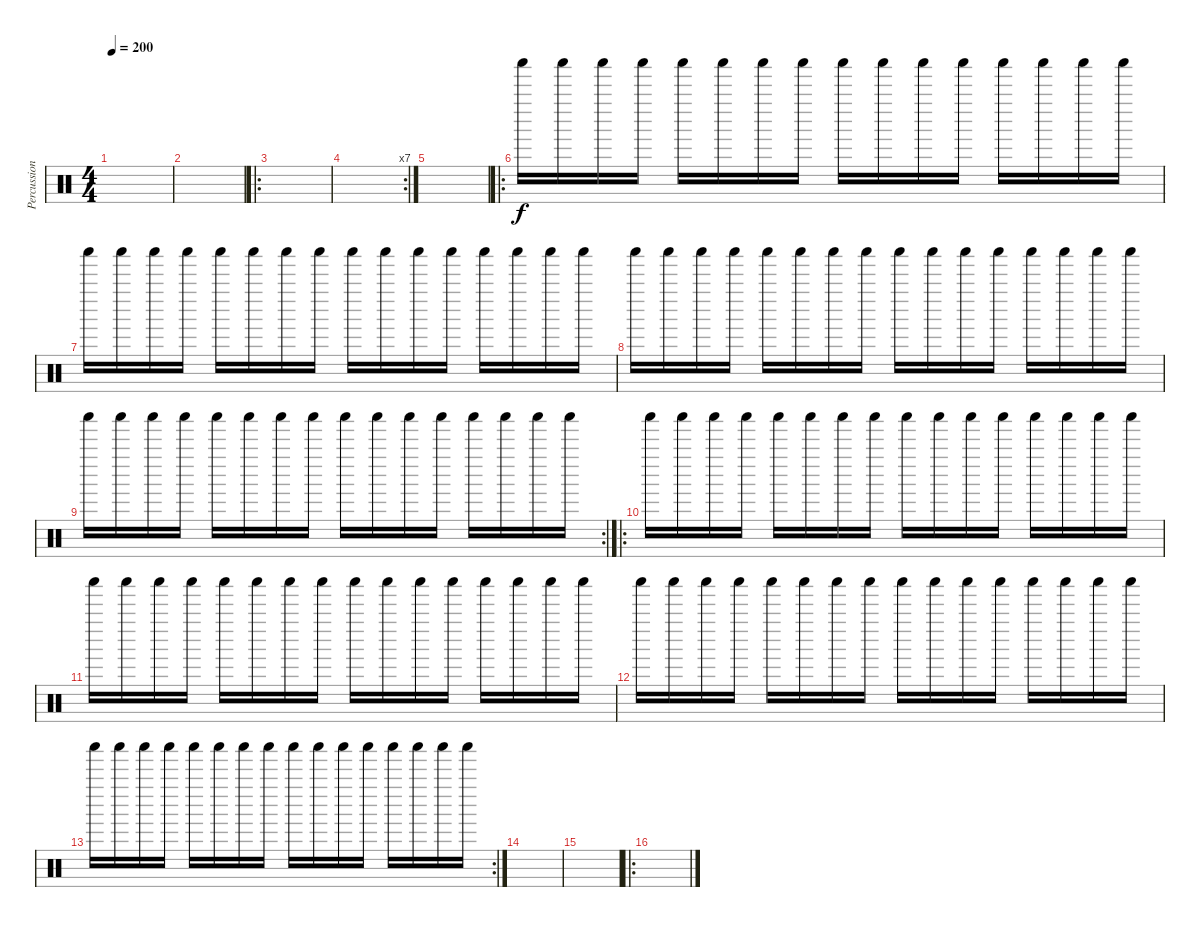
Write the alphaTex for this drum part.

\track ("Percussion" "Percussion") {instrument percussion}
\staff {score}
\articulation defaults
\ts (4 4)
\tempo 200
\clef neutral
\ks c
|
|
\ro
|
\rc 7
|
|
\ro "Shaker (hit)".16 "Shaker (hit)".16 "Shaker (hit)".16 "Shaker (hit)".16 "Shaker (hit)".16 "Shaker (hit)".16 "Shaker (hit)".16 "Shaker (hit)".16 "Shaker (hit)".16 "Shaker (hit)".16 "Shaker (hit)".16 "Shaker (hit)".16 "Shaker (hit)".16 "Shaker (hit)".16 "Shaker (hit)".16 "Shaker (hit)".16
|
"Shaker (hit)".16 "Shaker (hit)".16 "Shaker (hit)".16 "Shaker (hit)".16 "Shaker (hit)".16 "Shaker (hit)".16 "Shaker (hit)".16 "Shaker (hit)".16 "Shaker (hit)".16 "Shaker (hit)".16 "Shaker (hit)".16 "Shaker (hit)".16 "Shaker (hit)".16 "Shaker (hit)".16 "Shaker (hit)".16 "Shaker (hit)".16 |
"Shaker (hit)".16 "Shaker (hit)".16 "Shaker (hit)".16 "Shaker (hit)".16 "Shaker (hit)".16 "Shaker (hit)".16 "Shaker (hit)".16 "Shaker (hit)".16 "Shaker (hit)".16 "Shaker (hit)".16 "Shaker (hit)".16 "Shaker (hit)".16 "Shaker (hit)".16 "Shaker (hit)".16 "Shaker (hit)".16 "Shaker (hit)".16 |
\rc 2 "Shaker (hit)".16 "Shaker (hit)".16 "Shaker (hit)".16 "Shaker (hit)".16 "Shaker (hit)".16 "Shaker (hit)".16 "Shaker (hit)".16 "Shaker (hit)".16 "Shaker (hit)".16 "Shaker (hit)".16 "Shaker (hit)".16 "Shaker (hit)".16 "Shaker (hit)".16 "Shaker (hit)".16 "Shaker (hit)".16 "Shaker (hit)".16
|
\ro "Shaker (hit)".16 "Shaker (hit)".16 "Shaker (hit)".16 "Shaker (hit)".16 "Shaker (hit)".16 "Shaker (hit)".16 "Shaker (hit)".16 "Shaker (hit)".16 "Shaker (hit)".16 "Shaker (hit)".16 "Shaker (hit)".16 "Shaker (hit)".16 "Shaker (hit)".16 "Shaker (hit)".16 "Shaker (hit)".16 "Shaker (hit)".16
|
"Shaker (hit)".16 "Shaker (hit)".16 "Shaker (hit)".16 "Shaker (hit)".16 "Shaker (hit)".16 "Shaker (hit)".16 "Shaker (hit)".16 "Shaker (hit)".16 "Shaker (hit)".16 "Shaker (hit)".16 "Shaker (hit)".16 "Shaker (hit)".16 "Shaker (hit)".16 "Shaker (hit)".16 "Shaker (hit)".16 "Shaker (hit)".16 |
"Shaker (hit)".16 "Shaker (hit)".16 "Shaker (hit)".16 "Shaker (hit)".16 "Shaker (hit)".16 "Shaker (hit)".16 "Shaker (hit)".16 "Shaker (hit)".16 "Shaker (hit)".16 "Shaker (hit)".16 "Shaker (hit)".16 "Shaker (hit)".16 "Shaker (hit)".16 "Shaker (hit)".16 "Shaker (hit)".16 "Shaker (hit)".16 |
\rc 2 "Shaker (hit)".16 "Shaker (hit)".16 "Shaker (hit)".16 "Shaker (hit)".16 "Shaker (hit)".16 "Shaker (hit)".16 "Shaker (hit)".16 "Shaker (hit)".16 "Shaker (hit)".16 "Shaker (hit)".16 "Shaker (hit)".16 "Shaker (hit)".16 "Shaker (hit)".16 "Shaker (hit)".16 "Shaker (hit)".16 "Shaker (hit)".16
|
|
|
\ro
